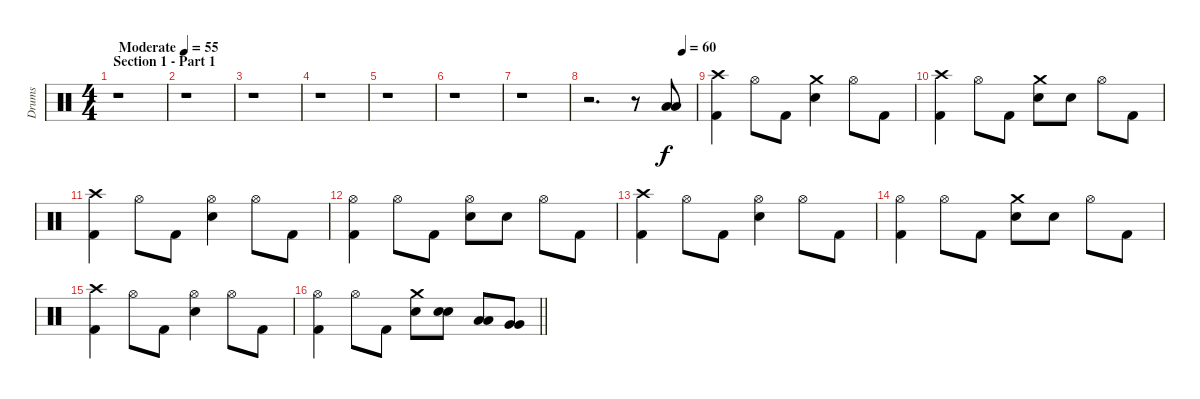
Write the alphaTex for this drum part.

\track ("Drums" "Drums") {instrument percussion}
\staff {score}
\articulation defaults
\ts (4 4)
\section ("" "Section 1 - Part 1")
\tempo (55 "Moderate")
\clef neutral
\ks c
r.1{dy f} |
r.1 |
r.1 |
r.1 |
r.1 |
r.1 |
r.1 |
\tempo (60 0.875)
r.2{d} r.8 ("Low Floor Tom (hit)" "Low Floor Tom (hit)").8{bd 60} |
("Crash high (hit)" "Kick (hit) 2").4 "Hi-Hat (open)".8 "Kick (hit) 2".8 ("Crash medium (hit)" "Electric Snare (hit)").4 "Hi-Hat (open)".8 "Kick (hit) 2".8 |
("Crash high (hit)" "Kick (hit) 2").4 "Hi-Hat (open)".8 "Kick (hit) 2".8 ("Crash medium (hit)" "Electric Snare (hit)").8 "Electric Snare (hit)".8 "Hi-Hat (open)".8 "Kick (hit) 2".8 |
("Crash high (hit)" "Kick (hit) 2").4 "Hi-Hat (open)".8 "Kick (hit) 2".8 ("Hi-Hat (open)" "Electric Snare (hit)").4 "Hi-Hat (open)".8 "Kick (hit) 2".8 |
("Hi-Hat (open)" "Kick (hit) 2").4 "Hi-Hat (open)".8 "Kick (hit) 2".8 ("Hi-Hat (open)" "Electric Snare (hit)").8 "Electric Snare (hit)".8 "Hi-Hat (open)".8 "Kick (hit) 2".8 |
("Crash high (hit)" "Kick (hit) 2").4 "Hi-Hat (open)".8 "Kick (hit) 2".8 ("Hi-Hat (open)" "Electric Snare (hit)").4 "Hi-Hat (open)".8 "Kick (hit) 2".8 |
("Hi-Hat (open)" "Kick (hit) 2").4 "Hi-Hat (open)".8 "Kick (hit) 2".8 ("Crash medium (hit)" "Electric Snare (hit)").8 "Electric Snare (hit)".8 "Hi-Hat (open)".8 "Kick (hit) 2".8 |
("Crash high (hit)" "Kick (hit) 2").4 "Hi-Hat (open)".8 "Kick (hit) 2".8 ("Hi-Hat (open)" "Electric Snare (hit)").4 "Hi-Hat (open)".8 "Kick (hit) 2".8 |
\barLineRight lightlight
("Hi-Hat (open)" "Kick (hit) 2").4 "Hi-Hat (open)".8 "Kick (hit) 2".8 ("Crash medium (hit)" "Electric Snare (hit)").8 ("Electric Snare (hit)" "Electric Snare (hit)").8{bu 60} ("Low Tom (hit)" "Low Tom (hit)").8{bu 60} ("Very Low Tom (hit)" "Very Low Tom (hit)").8{bu 60}
